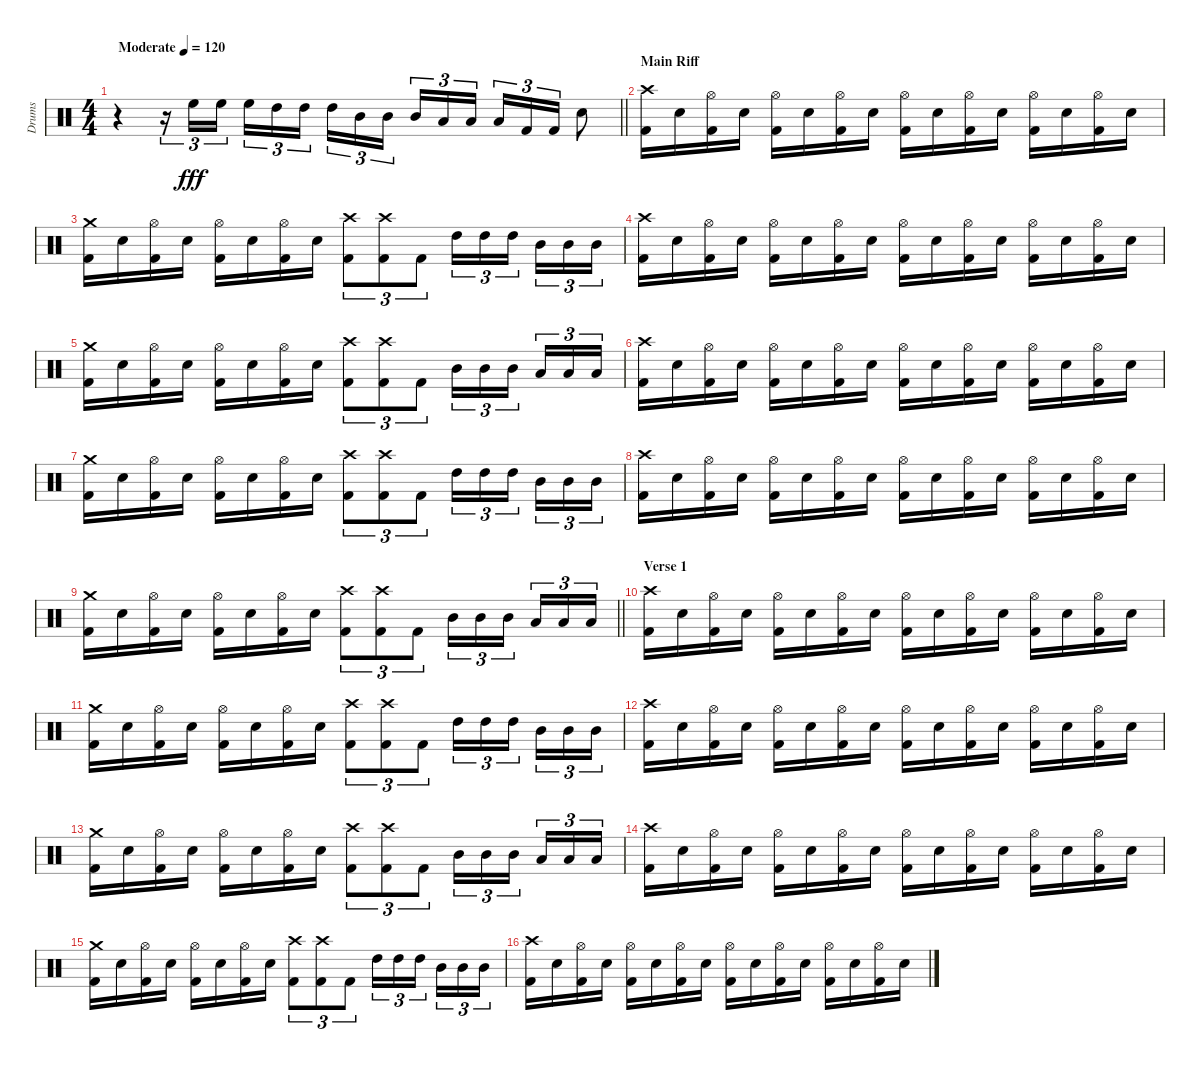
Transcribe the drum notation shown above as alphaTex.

\track ("Drums" "Drums") {instrument percussion}
\staff {score}
\articulation defaults
\ts (4 4)
\tempo (120 "Moderate")
\clef neutral
\barLineRight lightlight
\ks c
r.4{dy fff} r.16{tu (3 2)} "High Floor Tom (hit)".16{tu (3 2)} "High Floor Tom (hit)".16{tu (3 2) beam splitsecondary} "High Floor Tom (hit)".16{tu (3 2)} "High Tom (hit)".16{tu (3 2)} "High Tom (hit)".16{tu (3 2)} "High Tom (hit)".16{tu (3 2)} "Mid Tom (hit)".16{tu (3 2)} "Mid Tom (hit)".16{tu (3 2) beam splitsecondary} "Mid Tom (hit)".16{tu (3 2)} "Low Tom (hit)".16{tu (3 2)} "Low Tom (hit)".16{tu (3 2)} "Low Tom (hit)".16{tu (3 2)} "Kick (hit) 2".16{tu (3 2)} "Kick (hit) 2".16{tu (3 2)} "Snare (hit) 2".8 |
\section ("" "Main Riff")
("Crash high (hit)" "Kick (hit) 2").16 "Snare (hit) 2".16 ("Hi-Hat (open)" "Kick (hit) 2").16 "Snare (hit) 2".16 ("Hi-Hat (open)" "Kick (hit) 2").16 "Snare (hit) 2".16 ("Hi-Hat (open)" "Kick (hit) 2").16 "Snare (hit) 2".16 ("Hi-Hat (open)" "Kick (hit) 2").16 "Snare (hit) 2".16 ("Hi-Hat (open)" "Kick (hit) 2").16 "Snare (hit) 2".16 ("Hi-Hat (open)" "Kick (hit) 2").16 "Snare (hit) 2".16 ("Hi-Hat (open)" "Kick (hit) 2").16 "Snare (hit) 2".16 |
("Crash medium (hit)" "Kick (hit) 2").16 "Snare (hit) 2".16 ("Hi-Hat (open)" "Kick (hit) 2").16 "Snare (hit) 2".16 ("Hi-Hat (open)" "Kick (hit) 2").16 "Snare (hit) 2".16 ("Hi-Hat (open)" "Kick (hit) 2").16 "Snare (hit) 2".16 ("Crash high (hit)" "Kick (hit) 2").8{tu (3 2)} ("Crash high (hit)" "Kick (hit) 2").8{tu (3 2)} "Kick (hit) 2".8{tu (3 2)} "High Tom (hit)".16{tu (3 2)} "High Tom (hit)".16{tu (3 2)} "High Tom (hit)".16{tu (3 2) beam splitsecondary} "Mid Tom (hit)".16{tu (3 2)} "Mid Tom (hit)".16{tu (3 2)} "Mid Tom (hit)".16{tu (3 2)} |
("Crash high (hit)" "Kick (hit) 2").16 "Snare (hit) 2".16 ("Hi-Hat (open)" "Kick (hit) 2").16 "Snare (hit) 2".16 ("Hi-Hat (open)" "Kick (hit) 2").16 "Snare (hit) 2".16 ("Hi-Hat (open)" "Kick (hit) 2").16 "Snare (hit) 2".16 ("Hi-Hat (open)" "Kick (hit) 2").16 "Snare (hit) 2".16 ("Hi-Hat (open)" "Kick (hit) 2").16 "Snare (hit) 2".16 ("Hi-Hat (open)" "Kick (hit) 2").16 "Snare (hit) 2".16 ("Hi-Hat (open)" "Kick (hit) 2").16 "Snare (hit) 2".16 |
("Crash medium (hit)" "Kick (hit) 2").16 "Snare (hit) 2".16 ("Hi-Hat (open)" "Kick (hit) 2").16 "Snare (hit) 2".16 ("Hi-Hat (open)" "Kick (hit) 2").16 "Snare (hit) 2".16 ("Hi-Hat (open)" "Kick (hit) 2").16 "Snare (hit) 2".16 ("Crash high (hit)" "Kick (hit) 2").8{tu (3 2)} ("Crash high (hit)" "Kick (hit) 2").8{tu (3 2)} "Kick (hit) 2".8{tu (3 2)} "Mid Tom (hit)".16{tu (3 2)} "Mid Tom (hit)".16{tu (3 2)} "Mid Tom (hit)".16{tu (3 2) beam splitsecondary} "Low Tom (hit)".16{tu (3 2)} "Low Tom (hit)".16{tu (3 2)} "Low Tom (hit)".16{tu (3 2)} |
("Crash high (hit)" "Kick (hit) 2").16 "Snare (hit) 2".16 ("Hi-Hat (open)" "Kick (hit) 2").16 "Snare (hit) 2".16 ("Hi-Hat (open)" "Kick (hit) 2").16 "Snare (hit) 2".16 ("Hi-Hat (open)" "Kick (hit) 2").16 "Snare (hit) 2".16 ("Hi-Hat (open)" "Kick (hit) 2").16 "Snare (hit) 2".16 ("Hi-Hat (open)" "Kick (hit) 2").16 "Snare (hit) 2".16 ("Hi-Hat (open)" "Kick (hit) 2").16 "Snare (hit) 2".16 ("Hi-Hat (open)" "Kick (hit) 2").16 "Snare (hit) 2".16 |
("Crash medium (hit)" "Kick (hit) 2").16 "Snare (hit) 2".16 ("Hi-Hat (open)" "Kick (hit) 2").16 "Snare (hit) 2".16 ("Hi-Hat (open)" "Kick (hit) 2").16 "Snare (hit) 2".16 ("Hi-Hat (open)" "Kick (hit) 2").16 "Snare (hit) 2".16 ("Crash high (hit)" "Kick (hit) 2").8{tu (3 2)} ("Crash high (hit)" "Kick (hit) 2").8{tu (3 2)} "Kick (hit) 2".8{tu (3 2)} "High Tom (hit)".16{tu (3 2)} "High Tom (hit)".16{tu (3 2)} "High Tom (hit)".16{tu (3 2) beam splitsecondary} "Mid Tom (hit)".16{tu (3 2)} "Mid Tom (hit)".16{tu (3 2)} "Mid Tom (hit)".16{tu (3 2)} |
("Crash high (hit)" "Kick (hit) 2").16 "Snare (hit) 2".16 ("Hi-Hat (open)" "Kick (hit) 2").16 "Snare (hit) 2".16 ("Hi-Hat (open)" "Kick (hit) 2").16 "Snare (hit) 2".16 ("Hi-Hat (open)" "Kick (hit) 2").16 "Snare (hit) 2".16 ("Hi-Hat (open)" "Kick (hit) 2").16 "Snare (hit) 2".16 ("Hi-Hat (open)" "Kick (hit) 2").16 "Snare (hit) 2".16 ("Hi-Hat (open)" "Kick (hit) 2").16 "Snare (hit) 2".16 ("Hi-Hat (open)" "Kick (hit) 2").16 "Snare (hit) 2".16 |
\barLineRight lightlight
("Crash medium (hit)" "Kick (hit) 2").16 "Snare (hit) 2".16 ("Hi-Hat (open)" "Kick (hit) 2").16 "Snare (hit) 2".16 ("Hi-Hat (open)" "Kick (hit) 2").16 "Snare (hit) 2".16 ("Hi-Hat (open)" "Kick (hit) 2").16 "Snare (hit) 2".16 ("Crash high (hit)" "Kick (hit) 2").8{tu (3 2)} ("Crash high (hit)" "Kick (hit) 2").8{tu (3 2)} "Kick (hit) 2".8{tu (3 2)} "Mid Tom (hit)".16{tu (3 2)} "Mid Tom (hit)".16{tu (3 2)} "Mid Tom (hit)".16{tu (3 2) beam splitsecondary} "Low Tom (hit)".16{tu (3 2)} "Low Tom (hit)".16{tu (3 2)} "Low Tom (hit)".16{tu (3 2)} |
\section ("" "Verse 1")
("Crash high (hit)" "Kick (hit) 2").16 "Snare (hit) 2".16 ("Hi-Hat (open)" "Kick (hit) 2").16 "Snare (hit) 2".16 ("Hi-Hat (open)" "Kick (hit) 2").16 "Snare (hit) 2".16 ("Hi-Hat (open)" "Kick (hit) 2").16 "Snare (hit) 2".16 ("Hi-Hat (open)" "Kick (hit) 2").16 "Snare (hit) 2".16 ("Hi-Hat (open)" "Kick (hit) 2").16 "Snare (hit) 2".16 ("Hi-Hat (open)" "Kick (hit) 2").16 "Snare (hit) 2".16 ("Hi-Hat (open)" "Kick (hit) 2").16 "Snare (hit) 2".16 |
("Crash medium (hit)" "Kick (hit) 2").16 "Snare (hit) 2".16 ("Hi-Hat (open)" "Kick (hit) 2").16 "Snare (hit) 2".16 ("Hi-Hat (open)" "Kick (hit) 2").16 "Snare (hit) 2".16 ("Hi-Hat (open)" "Kick (hit) 2").16 "Snare (hit) 2".16 ("Crash high (hit)" "Kick (hit) 2").8{tu (3 2)} ("Crash high (hit)" "Kick (hit) 2").8{tu (3 2)} "Kick (hit) 2".8{tu (3 2)} "High Tom (hit)".16{tu (3 2)} "High Tom (hit)".16{tu (3 2)} "High Tom (hit)".16{tu (3 2) beam splitsecondary} "Mid Tom (hit)".16{tu (3 2)} "Mid Tom (hit)".16{tu (3 2)} "Mid Tom (hit)".16{tu (3 2)} |
("Crash high (hit)" "Kick (hit) 2").16 "Snare (hit) 2".16 ("Hi-Hat (open)" "Kick (hit) 2").16 "Snare (hit) 2".16 ("Hi-Hat (open)" "Kick (hit) 2").16 "Snare (hit) 2".16 ("Hi-Hat (open)" "Kick (hit) 2").16 "Snare (hit) 2".16 ("Hi-Hat (open)" "Kick (hit) 2").16 "Snare (hit) 2".16 ("Hi-Hat (open)" "Kick (hit) 2").16 "Snare (hit) 2".16 ("Hi-Hat (open)" "Kick (hit) 2").16 "Snare (hit) 2".16 ("Hi-Hat (open)" "Kick (hit) 2").16 "Snare (hit) 2".16 |
("Crash medium (hit)" "Kick (hit) 2").16 "Snare (hit) 2".16 ("Hi-Hat (open)" "Kick (hit) 2").16 "Snare (hit) 2".16 ("Hi-Hat (open)" "Kick (hit) 2").16 "Snare (hit) 2".16 ("Hi-Hat (open)" "Kick (hit) 2").16 "Snare (hit) 2".16 ("Crash high (hit)" "Kick (hit) 2").8{tu (3 2)} ("Crash high (hit)" "Kick (hit) 2").8{tu (3 2)} "Kick (hit) 2".8{tu (3 2)} "Mid Tom (hit)".16{tu (3 2)} "Mid Tom (hit)".16{tu (3 2)} "Mid Tom (hit)".16{tu (3 2) beam splitsecondary} "Low Tom (hit)".16{tu (3 2)} "Low Tom (hit)".16{tu (3 2)} "Low Tom (hit)".16{tu (3 2)} |
("Crash high (hit)" "Kick (hit) 2").16 "Snare (hit) 2".16 ("Hi-Hat (open)" "Kick (hit) 2").16 "Snare (hit) 2".16 ("Hi-Hat (open)" "Kick (hit) 2").16 "Snare (hit) 2".16 ("Hi-Hat (open)" "Kick (hit) 2").16 "Snare (hit) 2".16 ("Hi-Hat (open)" "Kick (hit) 2").16 "Snare (hit) 2".16 ("Hi-Hat (open)" "Kick (hit) 2").16 "Snare (hit) 2".16 ("Hi-Hat (open)" "Kick (hit) 2").16 "Snare (hit) 2".16 ("Hi-Hat (open)" "Kick (hit) 2").16 "Snare (hit) 2".16 |
("Crash medium (hit)" "Kick (hit) 2").16 "Snare (hit) 2".16 ("Hi-Hat (open)" "Kick (hit) 2").16 "Snare (hit) 2".16 ("Hi-Hat (open)" "Kick (hit) 2").16 "Snare (hit) 2".16 ("Hi-Hat (open)" "Kick (hit) 2").16 "Snare (hit) 2".16 ("Crash high (hit)" "Kick (hit) 2").8{tu (3 2)} ("Crash high (hit)" "Kick (hit) 2").8{tu (3 2)} "Kick (hit) 2".8{tu (3 2)} "High Tom (hit)".16{tu (3 2)} "High Tom (hit)".16{tu (3 2)} "High Tom (hit)".16{tu (3 2) beam splitsecondary} "Mid Tom (hit)".16{tu (3 2)} "Mid Tom (hit)".16{tu (3 2)} "Mid Tom (hit)".16{tu (3 2)} |
("Crash high (hit)" "Kick (hit) 2").16 "Snare (hit) 2".16 ("Hi-Hat (open)" "Kick (hit) 2").16 "Snare (hit) 2".16 ("Hi-Hat (open)" "Kick (hit) 2").16 "Snare (hit) 2".16 ("Hi-Hat (open)" "Kick (hit) 2").16 "Snare (hit) 2".16 ("Hi-Hat (open)" "Kick (hit) 2").16 "Snare (hit) 2".16 ("Hi-Hat (open)" "Kick (hit) 2").16 "Snare (hit) 2".16 ("Hi-Hat (open)" "Kick (hit) 2").16 "Snare (hit) 2".16 ("Hi-Hat (open)" "Kick (hit) 2").16 "Snare (hit) 2".16
